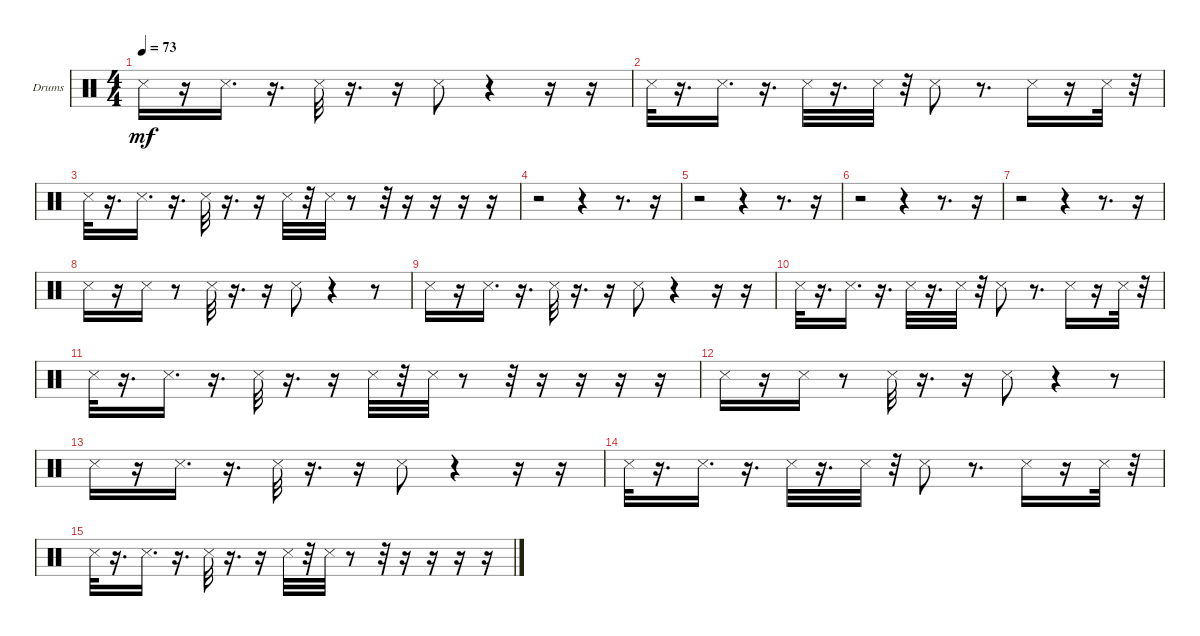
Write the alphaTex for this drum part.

\bracketExtendMode groupsimilarinstruments
\firstSystemTrackNameOrientation horizontal
\otherSystemsTrackNameOrientation horizontal
\track ("rim" "Drums") {instrument percussion}
\staff {score}
\articulation defaults
\ts (4 4)
\tempo 73
\clef neutral
\ks c "Snare (side stick) 3".16{dy mf}
r.16 "Snare (side stick) 3".16{d} r.16{d} "Snare (side stick) 3".32 r.16{d} r.16 "Snare (side stick) 3".8 r.4 r.16 r.16 |
"Snare (side stick) 3".32 r.16{d} "Snare (side stick) 3".16{d} r.16{d} "Snare (side stick) 3".32 r.16{d} "Snare (side stick) 3".32 r.32 "Snare (side stick) 3".8 r.8{d} "Snare (side stick) 3".16 r.16 "Snare (side stick) 3".32 r.32 |
"Snare (side stick) 3".32 r.16{d} "Snare (side stick) 3".16{d} r.16{d} "Snare (side stick) 3".32 r.16{d} r.16 "Snare (side stick) 3".32 r.32 "Snare (side stick) 3".32 r.8 r.32 r.16 r.16 r.16 r.16 |
r.2 r.4 r.8{d} r.16 |
r.2 r.4 r.8{d} r.16 |
r.2 r.4 r.8{d} r.16 |
r.2 r.4 r.8{d} r.16 |
"Snare (side stick) 3".16 r.16 "Snare (side stick) 3".16 r.8 "Snare (side stick) 3".32 r.16{d} r.16 "Snare (side stick) 3".8 r.4 r.8 |
"Snare (side stick) 3".16 r.16 "Snare (side stick) 3".16{d} r.16{d} "Snare (side stick) 3".32 r.16{d} r.16 "Snare (side stick) 3".8 r.4 r.16 r.16 |
"Snare (side stick) 3".32 r.16{d} "Snare (side stick) 3".16{d} r.16{d} "Snare (side stick) 3".32 r.16{d} "Snare (side stick) 3".32 r.32 "Snare (side stick) 3".8 r.8{d} "Snare (side stick) 3".16 r.16 "Snare (side stick) 3".32 r.32 |
"Snare (side stick) 3".32 r.16{d} "Snare (side stick) 3".16{d} r.16{d} "Snare (side stick) 3".32 r.16{d} r.16 "Snare (side stick) 3".32 r.32 "Snare (side stick) 3".32 r.8 r.32 r.16 r.16 r.16 r.16 |
"Snare (side stick) 3".16 r.16 "Snare (side stick) 3".16 r.8 "Snare (side stick) 3".32 r.16{d} r.16 "Snare (side stick) 3".8 r.4 r.8 |
"Snare (side stick) 3".16 r.16 "Snare (side stick) 3".16{d} r.16{d} "Snare (side stick) 3".32 r.16{d} r.16 "Snare (side stick) 3".8 r.4 r.16 r.16 |
"Snare (side stick) 3".32 r.16{d} "Snare (side stick) 3".16{d} r.16{d} "Snare (side stick) 3".32 r.16{d} "Snare (side stick) 3".32 r.32 "Snare (side stick) 3".8 r.8{d} "Snare (side stick) 3".16 r.16 "Snare (side stick) 3".32 r.32 |
"Snare (side stick) 3".32 r.16{d} "Snare (side stick) 3".16{d} r.16{d} "Snare (side stick) 3".32 r.16{d} r.16 "Snare (side stick) 3".32 r.32 "Snare (side stick) 3".32 r.8 r.32 r.16 r.16 r.16 r.16
